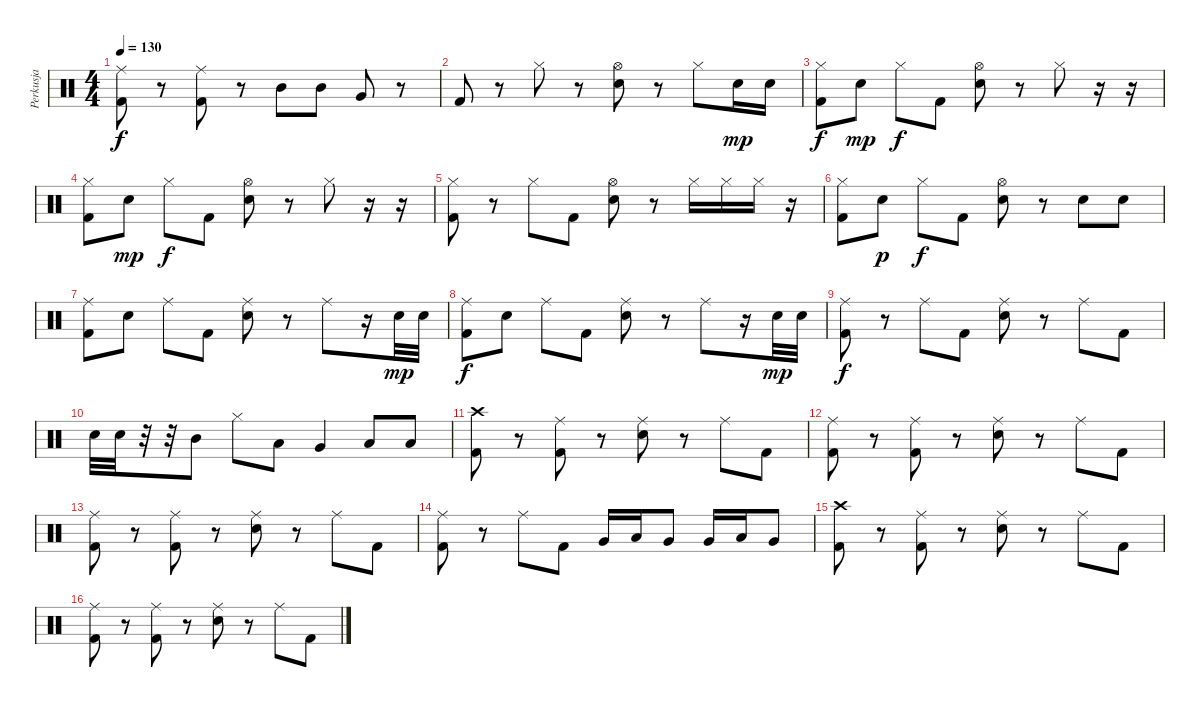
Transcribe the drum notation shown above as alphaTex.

\track ("Perkusja" "Perkusja") {instrument percussion}
\staff {score}
\articulation defaults
\ts (4 4)
\tempo 130
\clef neutral
\ks c
("Ride (middle)" "Kick (hit) 2").8{dy f} r.8 ("Ride (middle)" "Kick (hit) 2").8 r.8 "Mid Tom (hit)".8 "Mid Tom (hit)".8 "Very Low Tom (hit)".8 r.8 |
"Kick (hit) 2".8 r.8 "Hi-Hat (closed)".8 r.8 ("Hi-Hat (open)" "Snare (hit) 2").8 r.8 "Hi-Hat (closed)".8 "Snare (hit) 2".16{dy mp} "Snare (hit) 2".16 |
("Hi-Hat (closed)" "Kick (hit) 2").8{dy f} "Snare (hit) 2".8{dy mp} "Hi-Hat (closed)".8{dy f} "Kick (hit) 2".8 ("Hi-Hat (open)" "Snare (hit) 2").8 r.8 "Hi-Hat (closed)".8 r.16 r.16 |
("Hi-Hat (closed)" "Kick (hit) 2").8 "Snare (hit) 2".8{dy mp} "Hi-Hat (closed)".8{dy f} "Kick (hit) 2".8 ("Hi-Hat (open)" "Snare (hit) 2").8 r.8 "Hi-Hat (closed)".8 r.16 r.16 |
("Hi-Hat (closed)" "Kick (hit) 2").8 r.8 "Hi-Hat (closed)".8 "Kick (hit) 2".8 ("Hi-Hat (open)" "Snare (hit) 2").8 r.8 "Hi-Hat (closed)".16 "Hi-Hat (closed)".16 "Hi-Hat (closed)".16 r.16 |
("Hi-Hat (closed)" "Kick (hit) 2").8 "Snare (hit) 2".8{dy p} "Hi-Hat (closed)".8{dy f} "Kick (hit) 2".8 ("Hi-Hat (open)" "Snare (hit) 2").8 r.8 "Snare (hit) 2".8 "Snare (hit) 2".8 |
("Ride (middle)" "Kick (hit) 2").8 "Snare (hit) 2".8 "Ride (middle)".8 "Kick (hit) 2".8 ("Ride (middle)" "Snare (hit) 2").8 r.8 "Ride (middle)".8 r.16 "Snare (hit) 2".32{dy mp} "Snare (hit) 2".32 |
("Ride (middle)" "Kick (hit) 2").8{dy f} "Snare (hit) 2".8 "Ride (middle)".8 "Kick (hit) 2".8 ("Ride (middle)" "Snare (hit) 2").8 r.8 "Ride (middle)".8 r.16 "Snare (hit) 2".32{dy mp} "Snare (hit) 2".32 |
("Ride (middle)" "Kick (hit) 2").8{dy f} r.8 "Ride (middle)".8 "Kick (hit) 2".8 ("Ride (middle)" "Snare (hit) 2").8 r.8 "Ride (middle)".8 "Kick (hit) 2".8 |
"Snare (hit) 2".32{volume 16} "Snare (hit) 2".32 r.32 r.32 "Mid Tom (hit)".8 "Hi-Hat (closed)".8 "Low Tom (hit)".8 "Very Low Tom (hit)".4 "Low Floor Tom (hit)".8 "Low Floor Tom (hit)".8 |
("Crash high (hit)" "Kick (hit) 2").8 r.8 ("Ride (middle)" "Kick (hit) 2").8 r.8 ("Ride (middle)" "Snare (hit) 2").8 r.8 "Ride (middle)".8 "Kick (hit) 2".8 |
("Ride (middle)" "Kick (hit) 2").8 r.8 ("Ride (middle)" "Kick (hit) 2").8 r.8 ("Ride (middle)" "Snare (hit) 2").8 r.8 "Ride (middle)".8 "Kick (hit) 2".8 |
("Ride (middle)" "Kick (hit) 2").8 r.8 ("Ride (middle)" "Kick (hit) 2").8 r.8 ("Ride (middle)" "Snare (hit) 2").8 r.8 "Ride (middle)".8 "Kick (hit) 2".8 |
("Ride (middle)" "Kick (hit) 2").8 r.8 "Ride (middle)".8 "Kick (hit) 2".8 "Very Low Tom (hit)".16 "Low Floor Tom (hit)".16 "Very Low Tom (hit)".8 "Very Low Tom (hit)".16 "Low Floor Tom (hit)".16 "Very Low Tom (hit)".8 |
("Crash high (hit)" "Kick (hit) 2").8 r.8 ("Ride (middle)" "Kick (hit) 2").8 r.8 ("Ride (middle)" "Snare (hit) 2").8 r.8 "Ride (middle)".8 "Kick (hit) 2".8 |
("Ride (middle)" "Kick (hit) 2").8 r.8 ("Ride (middle)" "Kick (hit) 2").8 r.8 ("Ride (middle)" "Snare (hit) 2").8 r.8 "Ride (middle)".8 "Kick (hit) 2".8
